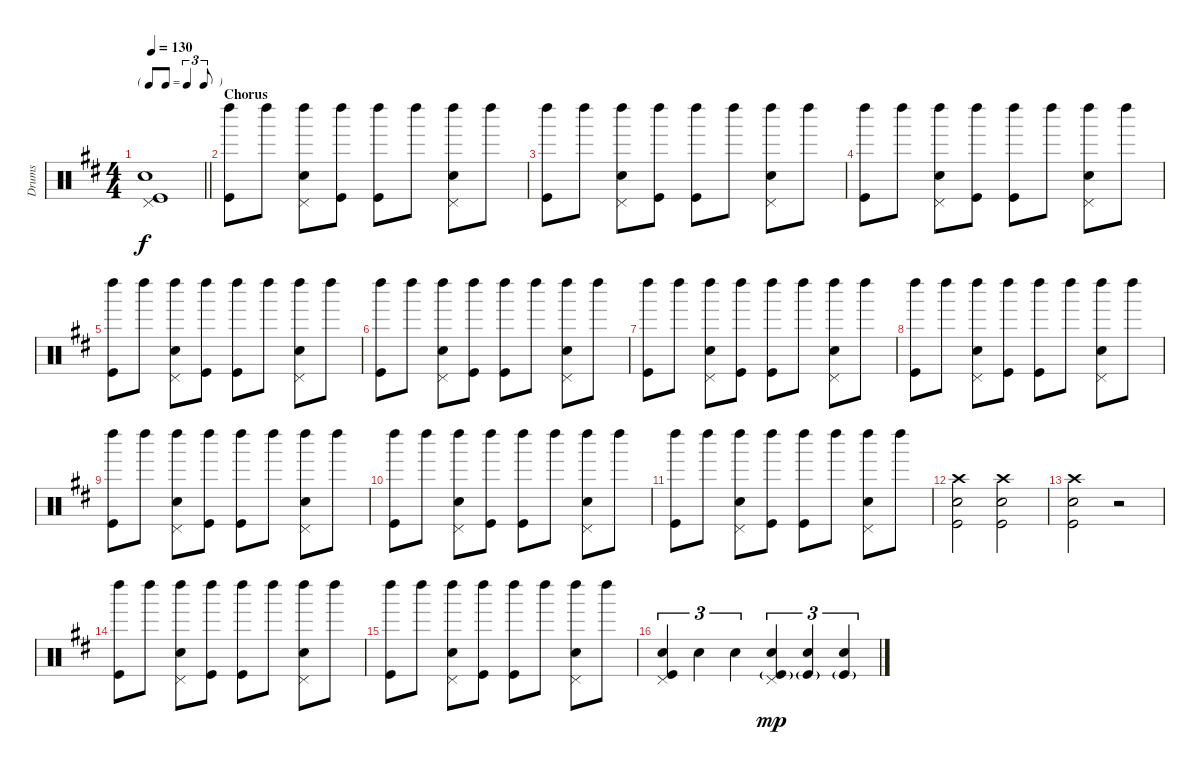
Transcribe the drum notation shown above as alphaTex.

\track ("Drums" "Drums") {instrument percussion}
\staff {score}
\articulation defaults
\ts (4 4)
\tf triplet8th
\tempo 130
\clef neutral
\barLineRight lightlight
\ks d
("Pedal Hi-Hat (hit)" "Snare (hit) 2" "Kick (hit)").1{dy f} |
\section ("" "Chorus")
("Left Maraca (hit)" "Kick (hit)").8 "Left Maraca (hit)".8 ("Left Maraca (hit)" "Pedal Hi-Hat (hit)" "Snare (hit) 2").8 ("Left Maraca (hit)" "Kick (hit)").8 ("Left Maraca (hit)" "Kick (hit)").8 "Left Maraca (hit)".8 ("Left Maraca (hit)" "Pedal Hi-Hat (hit)" "Snare (hit) 2").8 "Left Maraca (hit)".8 |
("Left Maraca (hit)" "Kick (hit)").8 "Left Maraca (hit)".8 ("Left Maraca (hit)" "Pedal Hi-Hat (hit)" "Snare (hit) 2").8 ("Left Maraca (hit)" "Kick (hit)").8 ("Left Maraca (hit)" "Kick (hit)").8 "Left Maraca (hit)".8 ("Left Maraca (hit)" "Pedal Hi-Hat (hit)" "Snare (hit) 2").8 "Left Maraca (hit)".8 |
("Left Maraca (hit)" "Kick (hit)").8 "Left Maraca (hit)".8 ("Left Maraca (hit)" "Pedal Hi-Hat (hit)" "Snare (hit) 2").8 ("Left Maraca (hit)" "Kick (hit)").8 ("Left Maraca (hit)" "Kick (hit)").8 "Left Maraca (hit)".8 ("Left Maraca (hit)" "Pedal Hi-Hat (hit)" "Snare (hit) 2").8 "Left Maraca (hit)".8 |
("Left Maraca (hit)" "Kick (hit)").8 "Left Maraca (hit)".8 ("Left Maraca (hit)" "Pedal Hi-Hat (hit)" "Snare (hit) 2").8 ("Left Maraca (hit)" "Kick (hit)").8 ("Left Maraca (hit)" "Kick (hit)").8 "Left Maraca (hit)".8 ("Left Maraca (hit)" "Pedal Hi-Hat (hit)" "Snare (hit) 2").8 "Left Maraca (hit)".8 |
("Left Maraca (hit)" "Kick (hit)").8 "Left Maraca (hit)".8 ("Left Maraca (hit)" "Pedal Hi-Hat (hit)" "Snare (hit) 2").8 ("Left Maraca (hit)" "Kick (hit)").8 ("Left Maraca (hit)" "Kick (hit)").8 "Left Maraca (hit)".8 ("Left Maraca (hit)" "Pedal Hi-Hat (hit)" "Snare (hit) 2").8 "Left Maraca (hit)".8 |
("Left Maraca (hit)" "Kick (hit)").8 "Left Maraca (hit)".8 ("Left Maraca (hit)" "Pedal Hi-Hat (hit)" "Snare (hit) 2").8 ("Left Maraca (hit)" "Kick (hit)").8 ("Left Maraca (hit)" "Kick (hit)").8 "Left Maraca (hit)".8 ("Left Maraca (hit)" "Pedal Hi-Hat (hit)" "Snare (hit) 2").8 "Left Maraca (hit)".8 |
("Left Maraca (hit)" "Kick (hit)").8 "Left Maraca (hit)".8 ("Left Maraca (hit)" "Pedal Hi-Hat (hit)" "Snare (hit) 2").8 ("Left Maraca (hit)" "Kick (hit)").8 ("Left Maraca (hit)" "Kick (hit)").8 "Left Maraca (hit)".8 ("Left Maraca (hit)" "Pedal Hi-Hat (hit)" "Snare (hit) 2").8 "Left Maraca (hit)".8 |
("Left Maraca (hit)" "Kick (hit)").8 "Left Maraca (hit)".8 ("Left Maraca (hit)" "Pedal Hi-Hat (hit)" "Snare (hit) 2").8 ("Left Maraca (hit)" "Kick (hit)").8 ("Left Maraca (hit)" "Kick (hit)").8 "Left Maraca (hit)".8 ("Left Maraca (hit)" "Pedal Hi-Hat (hit)" "Snare (hit) 2").8 "Left Maraca (hit)".8 |
("Left Maraca (hit)" "Kick (hit)").8 "Left Maraca (hit)".8 ("Left Maraca (hit)" "Pedal Hi-Hat (hit)" "Snare (hit) 2").8 ("Left Maraca (hit)" "Kick (hit)").8 ("Left Maraca (hit)" "Kick (hit)").8 "Left Maraca (hit)".8 ("Left Maraca (hit)" "Pedal Hi-Hat (hit)" "Snare (hit) 2").8 "Left Maraca (hit)".8 |
("Left Maraca (hit)" "Kick (hit)").8 "Left Maraca (hit)".8 ("Left Maraca (hit)" "Pedal Hi-Hat (hit)" "Snare (hit) 2").8 ("Left Maraca (hit)" "Kick (hit)").8 ("Left Maraca (hit)" "Kick (hit)").8 "Left Maraca (hit)".8 ("Left Maraca (hit)" "Pedal Hi-Hat (hit)" "Snare (hit) 2").8 "Left Maraca (hit)".8 |
("Crash high (hit)" "Snare (hit) 2" "Kick (hit)").2 ("Crash high (hit)" "Snare (hit) 2" "Kick (hit)").2 |
("Crash high (hit)" "Snare (hit) 2" "Kick (hit)").2 r.2 |
("Left Maraca (hit)" "Kick (hit)").8 "Left Maraca (hit)".8 ("Left Maraca (hit)" "Pedal Hi-Hat (hit)" "Snare (hit) 2").8 ("Left Maraca (hit)" "Kick (hit)").8 ("Left Maraca (hit)" "Kick (hit)").8 "Left Maraca (hit)".8 ("Left Maraca (hit)" "Pedal Hi-Hat (hit)" "Snare (hit) 2").8 "Left Maraca (hit)".8 |
("Left Maraca (hit)" "Kick (hit)").8 "Left Maraca (hit)".8 ("Left Maraca (hit)" "Pedal Hi-Hat (hit)" "Snare (hit) 2").8 ("Left Maraca (hit)" "Kick (hit)").8 ("Left Maraca (hit)" "Kick (hit)").8 "Left Maraca (hit)".8 ("Left Maraca (hit)" "Pedal Hi-Hat (hit)" "Snare (hit) 2").8 "Left Maraca (hit)".8 |
("Pedal Hi-Hat (hit)" "Snare (hit) 2" "Kick (hit)").4{tu (3 2)} "Snare (hit) 2".4{tu (3 2)} "Snare (hit) 2".4{tu (3 2)} ("Pedal Hi-Hat (hit)" "Snare (hit) 2" "Kick (hit)"{g}).4{tu (3 2) dy mp} ("Snare (hit) 2" "Kick (hit)"{g}).4{tu (3 2)} ("Snare (hit) 2" "Kick (hit)"{g}).4{tu (3 2)}
